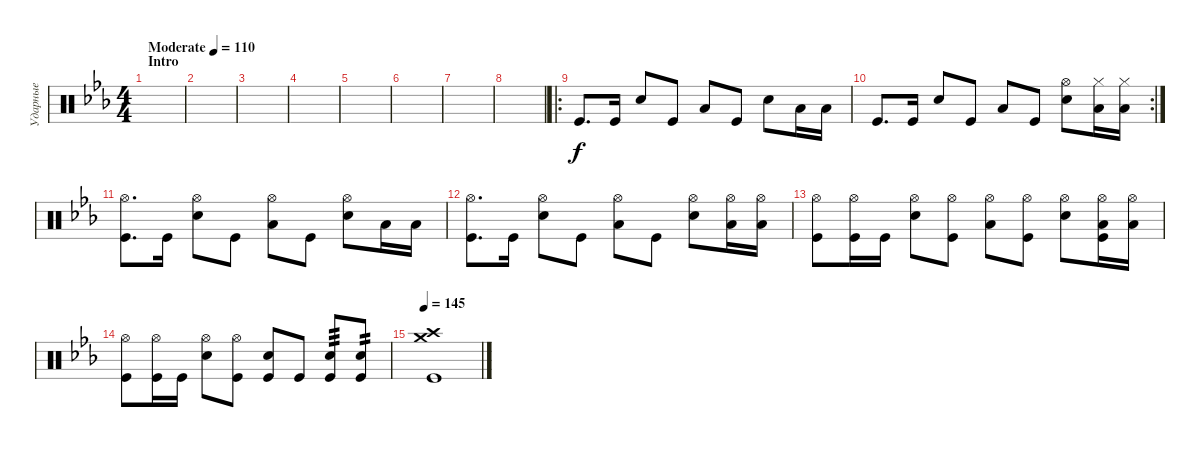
\track ("Ударные" "Ударные") {instrument percussion}
\staff {score}
\articulation defaults
\ts (4 4)
\section ("" "Intro")
\tempo (110 "Moderate")
\clef neutral
\ks cminor
|
|
|
|
|
|
|
|
\ro "Kick (hit)".8{d} "Kick (hit)".16 "Snare (hit) 2".8 "Kick (hit)".8 "Low Floor Tom (hit)".8 "Kick (hit)".8 "Snare (hit) 2".8 "Low Floor Tom (hit)".16 "Low Floor Tom (hit)".16
|
\rc 2 "Kick (hit)".8{d} "Kick (hit)".16 "Snare (hit) 2".8 "Kick (hit)".8 "Low Floor Tom (hit)".8 "Kick (hit)".8
("Hi-Hat (open)" "Snare (hit) 2").8 ("Hi-Hat (closed)" "Low Floor Tom (hit)").16 ("Hi-Hat (closed)" "Low Floor Tom (hit)").16 |
("Hi-Hat (open)" "Kick (hit)").8{d} "Kick (hit)".16 ("Hi-Hat (open)" "Snare (hit) 2").8 "Kick (hit)".8 ("Hi-Hat (open)" "Low Floor Tom (hit)").8 "Kick (hit)".8 ("Hi-Hat (open)" "Snare (hit) 2").8 "Low Floor Tom (hit)".16 "Low Floor Tom (hit)".16 |
("Hi-Hat (open)" "Kick (hit)").8{d} "Kick (hit)".16 ("Hi-Hat (open)" "Snare (hit) 2").8 "Kick (hit)".8 ("Hi-Hat (open)" "Low Floor Tom (hit)").8 "Kick (hit)".8 ("Hi-Hat (open)" "Snare (hit) 2").8 ("Hi-Hat (open)" "Low Floor Tom (hit)").16 ("Hi-Hat (open)" "Low Floor Tom (hit)").16 |
("Hi-Hat (open)" "Kick (hit)").8 ("Hi-Hat (open)" "Kick (hit)").16 "Kick (hit)".16 ("Hi-Hat (open)" "Snare (hit) 2").8 ("Hi-Hat (open)" "Kick (hit)").8 ("Hi-Hat (open)" "Low Floor Tom (hit)").8 ("Hi-Hat (open)" "Kick (hit)").8 ("Hi-Hat (open)" "Snare (hit) 2").8 ("Hi-Hat (open)" "Low Floor Tom (hit)" "Kick (hit)").16 ("Hi-Hat (open)" "Low Floor Tom (hit)").16 |
("Hi-Hat (open)" "Kick (hit)").8 ("Hi-Hat (open)" "Kick (hit)").16 "Kick (hit)".16 ("Hi-Hat (open)" "Snare (hit) 2").8 ("Hi-Hat (open)" "Kick (hit)").8 ("Snare (hit) 2" "Kick (hit)").8 "Kick (hit)".8 ("Snare (hit) 2" "Kick (hit)").8{tp 3} ("Snare (hit) 2" "Kick (hit)").8{tp 2} |
\tempo 145
("Crash high (hit)" "Crash medium (hit)" "Kick (hit)").1
